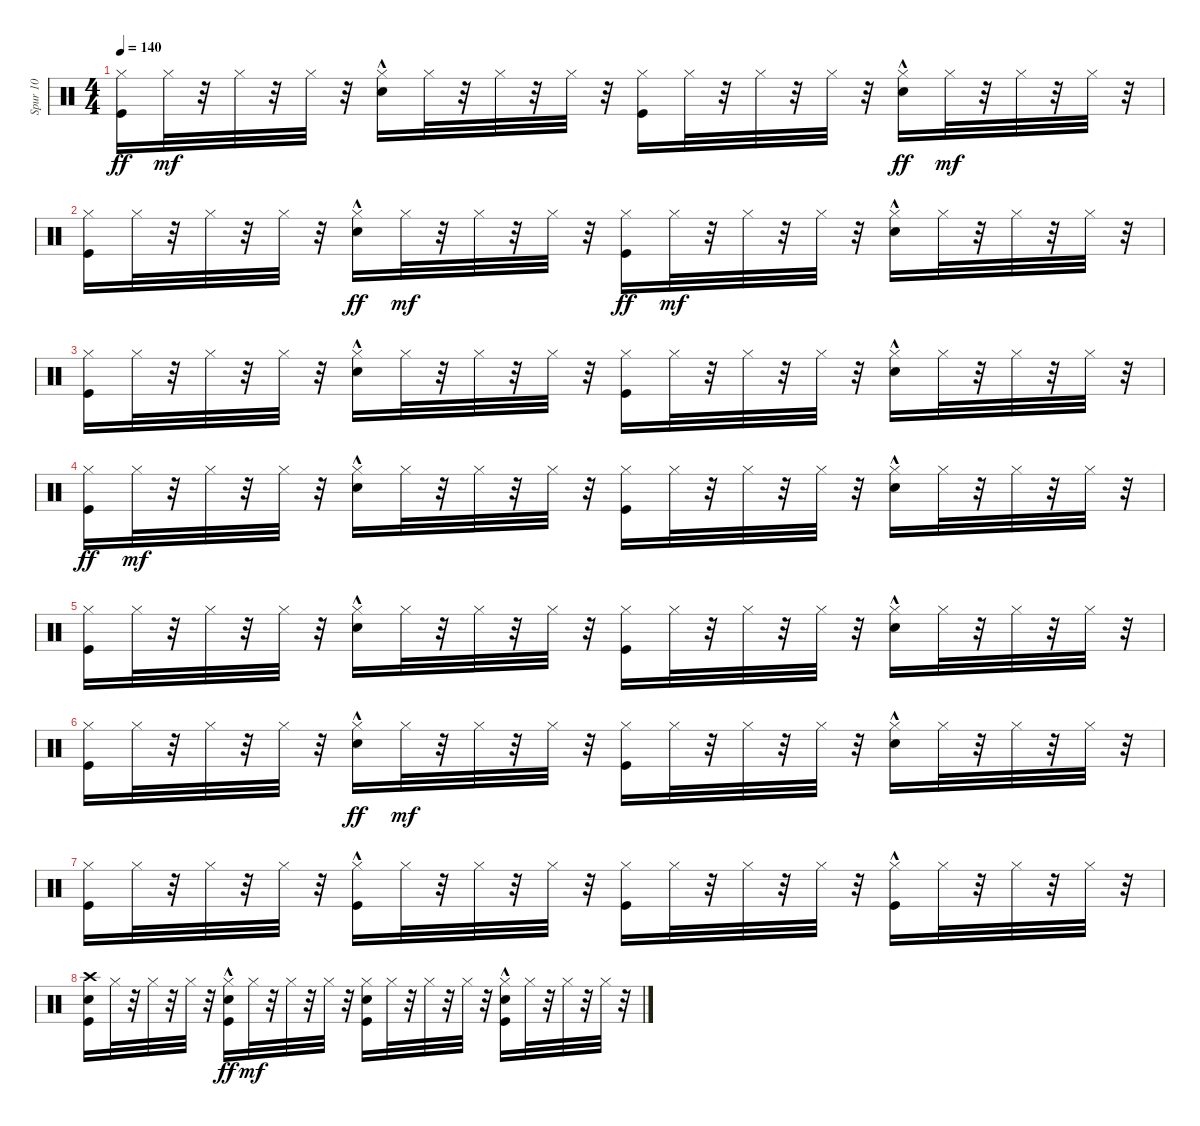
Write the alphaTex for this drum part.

\track ("Spur 10" "Spur 10") {instrument percussion}
\staff {score}
\articulation defaults
\ts (4 4)
\tempo 140
\clef neutral
\ks c
("Hi-Hat (closed)" "Kick (hit)").16{dy ff} "Hi-Hat (closed)".32{dy mf} r.32 "Hi-Hat (closed)".32 r.32 "Hi-Hat (closed)".32 r.32 ("Snare (hit) 2"{hac} "Hi-Hat (closed)").16 "Hi-Hat (closed)".32 r.32 "Hi-Hat (closed)".32 r.32 "Hi-Hat (closed)".32 r.32 ("Kick (hit)" "Hi-Hat (closed)").16 "Hi-Hat (closed)".32 r.32 "Hi-Hat (closed)".32 r.32 "Hi-Hat (closed)".32 r.32 ("Hi-Hat (closed)" "Snare (hit) 2"{hac}).16{dy ff} "Hi-Hat (closed)".32{dy mf} r.32 "Hi-Hat (closed)".32 r.32 "Hi-Hat (closed)".32 r.32 |
("Kick (hit)" "Hi-Hat (closed)").16 "Hi-Hat (closed)".32 r.32 "Hi-Hat (closed)".32 r.32 "Hi-Hat (closed)".32 r.32 ("Hi-Hat (closed)" "Snare (hit) 2"{hac}).16{dy ff} "Hi-Hat (closed)".32{dy mf} r.32 "Hi-Hat (closed)".32 r.32 "Hi-Hat (closed)".32 r.32 ("Hi-Hat (closed)" "Kick (hit)").16{dy ff} "Hi-Hat (closed)".32{dy mf} r.32 "Hi-Hat (closed)".32 r.32 "Hi-Hat (closed)".32 r.32 ("Snare (hit) 2"{hac} "Hi-Hat (closed)").16 "Hi-Hat (closed)".32 r.32 "Hi-Hat (closed)".32 r.32 "Hi-Hat (closed)".32 r.32 |
("Kick (hit)" "Hi-Hat (closed)").16 "Hi-Hat (closed)".32 r.32 "Hi-Hat (closed)".32 r.32 "Hi-Hat (closed)".32 r.32 ("Snare (hit) 2"{hac} "Hi-Hat (closed)").16 "Hi-Hat (closed)".32 r.32 "Hi-Hat (closed)".32 r.32 "Hi-Hat (closed)".32 r.32 ("Kick (hit)" "Hi-Hat (closed)").16 "Hi-Hat (closed)".32 r.32 "Hi-Hat (closed)".32 r.32 "Hi-Hat (closed)".32 r.32 ("Snare (hit) 2"{hac} "Hi-Hat (closed)").16 "Hi-Hat (closed)".32 r.32 "Hi-Hat (closed)".32 r.32 "Hi-Hat (closed)".32 r.32 |
("Hi-Hat (closed)" "Kick (hit)").16{dy ff} "Hi-Hat (closed)".32{dy mf} r.32 "Hi-Hat (closed)".32 r.32 "Hi-Hat (closed)".32 r.32 ("Snare (hit) 2"{hac} "Hi-Hat (closed)").16 "Hi-Hat (closed)".32 r.32 "Hi-Hat (closed)".32 r.32 "Hi-Hat (closed)".32 r.32 ("Kick (hit)" "Hi-Hat (closed)").16 "Hi-Hat (closed)".32 r.32 "Hi-Hat (closed)".32 r.32 "Hi-Hat (closed)".32 r.32 ("Snare (hit) 2"{hac} "Hi-Hat (closed)").16 "Hi-Hat (closed)".32 r.32 "Hi-Hat (closed)".32 r.32 "Hi-Hat (closed)".32 r.32 |
("Kick (hit)" "Hi-Hat (closed)").16 "Hi-Hat (closed)".32 r.32 "Hi-Hat (closed)".32 r.32 "Hi-Hat (closed)".32 r.32 ("Snare (hit) 2"{hac} "Hi-Hat (closed)").16 "Hi-Hat (closed)".32 r.32 "Hi-Hat (closed)".32 r.32 "Hi-Hat (closed)".32 r.32 ("Kick (hit)" "Hi-Hat (closed)").16 "Hi-Hat (closed)".32 r.32 "Hi-Hat (closed)".32 r.32 "Hi-Hat (closed)".32 r.32 ("Snare (hit) 2"{hac} "Hi-Hat (closed)").16 "Hi-Hat (closed)".32 r.32 "Hi-Hat (closed)".32 r.32 "Hi-Hat (closed)".32 r.32 |
("Kick (hit)" "Hi-Hat (closed)").16 "Hi-Hat (closed)".32 r.32 "Hi-Hat (closed)".32 r.32 "Hi-Hat (closed)".32 r.32 ("Hi-Hat (closed)" "Snare (hit) 2"{hac}).16{dy ff} "Hi-Hat (closed)".32{dy mf} r.32 "Hi-Hat (closed)".32 r.32 "Hi-Hat (closed)".32 r.32 ("Kick (hit)" "Hi-Hat (closed)").16 "Hi-Hat (closed)".32 r.32 "Hi-Hat (closed)".32 r.32 "Hi-Hat (closed)".32 r.32 ("Snare (hit) 2"{hac} "Hi-Hat (closed)").16 "Hi-Hat (closed)".32 r.32 "Hi-Hat (closed)".32 r.32 "Hi-Hat (closed)".32 r.32 |
("Kick (hit)" "Hi-Hat (closed)").16 "Hi-Hat (closed)".32 r.32 "Hi-Hat (closed)".32 r.32 "Hi-Hat (closed)".32 r.32 ("Kick (hit)"{hac} "Hi-Hat (closed)").16 "Hi-Hat (closed)".32 r.32 "Hi-Hat (closed)".32 r.32 "Hi-Hat (closed)".32 r.32 ("Kick (hit)" "Hi-Hat (closed)").16 "Hi-Hat (closed)".32 r.32 "Hi-Hat (closed)".32 r.32 "Hi-Hat (closed)".32 r.32 ("Kick (hit)"{hac} "Hi-Hat (closed)").16 "Hi-Hat (closed)".32 r.32 "Hi-Hat (closed)".32 r.32 "Hi-Hat (closed)".32 r.32 |
("Kick (hit)" "Crash high (hit)" "Hand Clap (hit)").16 "Hi-Hat (closed)".32 r.32 "Hi-Hat (closed)".32 r.32 "Hi-Hat (closed)".32 r.32 ("Hi-Hat (closed)" "Hand Clap (hit)" "Kick (hit)"{hac}).16{dy ff} "Hi-Hat (closed)".32{dy mf} r.32 "Hi-Hat (closed)".32 r.32 "Hi-Hat (closed)".32 r.32 ("Kick (hit)" "Hi-Hat (closed)" "Hand Clap (hit)").16 "Hi-Hat (closed)".32 r.32 "Hi-Hat (closed)".32 r.32 "Hi-Hat (closed)".32 r.32 ("Kick (hit)"{hac} "Hi-Hat (closed)" "Hand Clap (hit)").16 "Hi-Hat (closed)".32 r.32 "Hi-Hat (closed)".32 r.32 "Hi-Hat (closed)".32 r.32
